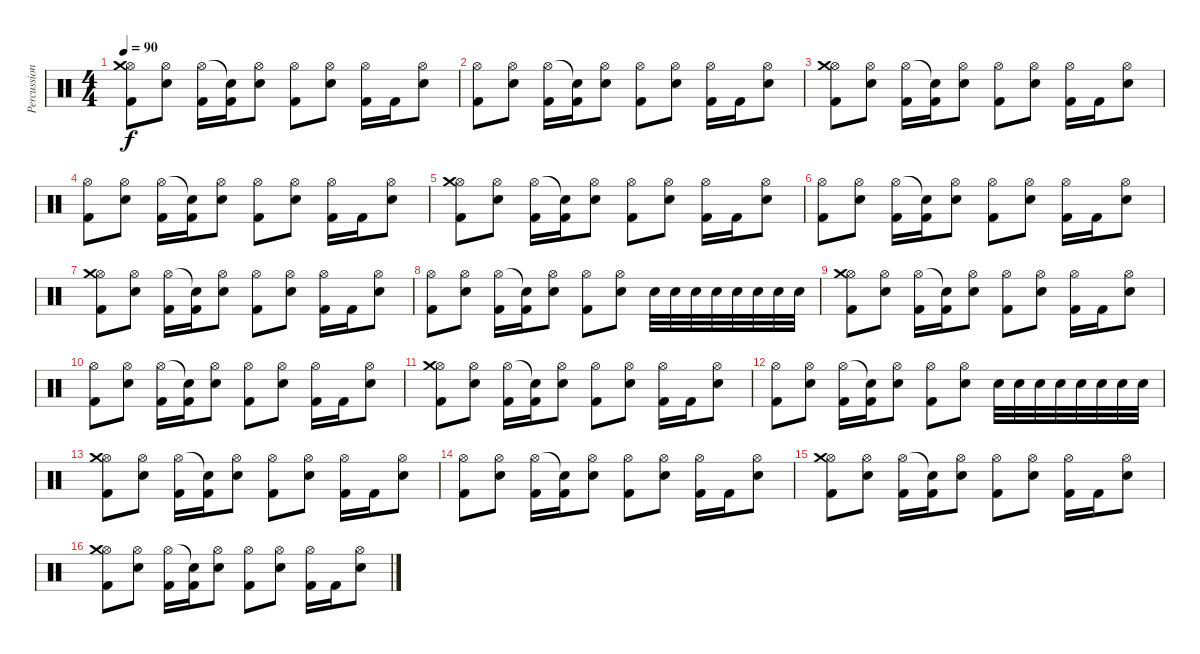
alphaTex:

\track ("Percussion" "Percussion") {instrument percussion}
\staff {score}
\articulation defaults
\ts (4 4)
\tempo 90
\clef neutral
\ks c
("Hi-Hat (open)" "Crash medium (hit)" "Kick (hit) 2").8{dy f} ("Hi-Hat (open)" "Snare (hit) 2").8 ("Hi-Hat (open)" "Kick (hit) 2").16 ("Snare (hit)"{t} "Kick (hit) 2").16 ("Hi-Hat (open)" "Snare (hit) 2").8 ("Hi-Hat (open)" "Kick (hit) 2").8 ("Hi-Hat (open)" "Snare (hit) 2").8 ("Hi-Hat (open)" "Kick (hit) 2").16 "Kick (hit) 2".16 ("Hi-Hat (open)" "Snare (hit) 2").8 |
("Hi-Hat (open)" "Kick (hit) 2").8 ("Hi-Hat (open)" "Snare (hit) 2").8 ("Hi-Hat (open)" "Kick (hit) 2").16 ("Snare (hit)"{t} "Kick (hit) 2").16 ("Hi-Hat (open)" "Snare (hit) 2").8 ("Hi-Hat (open)" "Kick (hit) 2").8 ("Hi-Hat (open)" "Snare (hit) 2").8 ("Hi-Hat (open)" "Kick (hit) 2").16 "Kick (hit) 2".16 ("Hi-Hat (open)" "Snare (hit) 2").8 |
("Hi-Hat (open)" "Crash medium (hit)" "Kick (hit) 2").8 ("Hi-Hat (open)" "Snare (hit) 2").8 ("Hi-Hat (open)" "Kick (hit) 2").16 ("Snare (hit)"{t} "Kick (hit) 2").16 ("Hi-Hat (open)" "Snare (hit) 2").8 ("Hi-Hat (open)" "Kick (hit) 2").8 ("Hi-Hat (open)" "Snare (hit) 2").8 ("Hi-Hat (open)" "Kick (hit) 2").16 "Kick (hit) 2".16 ("Hi-Hat (open)" "Snare (hit) 2").8 |
("Hi-Hat (open)" "Kick (hit) 2").8 ("Hi-Hat (open)" "Snare (hit) 2").8 ("Hi-Hat (open)" "Kick (hit) 2").16 ("Snare (hit)"{t} "Kick (hit) 2").16 ("Hi-Hat (open)" "Snare (hit) 2").8 ("Hi-Hat (open)" "Kick (hit) 2").8 ("Hi-Hat (open)" "Snare (hit) 2").8 ("Hi-Hat (open)" "Kick (hit) 2").16 "Kick (hit) 2".16 ("Hi-Hat (open)" "Snare (hit) 2").8 |
("Hi-Hat (open)" "Crash medium (hit)" "Kick (hit) 2").8 ("Hi-Hat (open)" "Snare (hit) 2").8 ("Hi-Hat (open)" "Kick (hit) 2").16 ("Snare (hit)"{t} "Kick (hit) 2").16 ("Hi-Hat (open)" "Snare (hit) 2").8 ("Hi-Hat (open)" "Kick (hit) 2").8 ("Hi-Hat (open)" "Snare (hit) 2").8 ("Hi-Hat (open)" "Kick (hit) 2").16 "Kick (hit) 2".16 ("Hi-Hat (open)" "Snare (hit) 2").8 |
("Hi-Hat (open)" "Kick (hit) 2").8 ("Hi-Hat (open)" "Snare (hit) 2").8 ("Hi-Hat (open)" "Kick (hit) 2").16 ("Snare (hit)"{t} "Kick (hit) 2").16 ("Hi-Hat (open)" "Snare (hit) 2").8 ("Hi-Hat (open)" "Kick (hit) 2").8 ("Hi-Hat (open)" "Snare (hit) 2").8 ("Hi-Hat (open)" "Kick (hit) 2").16 "Kick (hit) 2".16 ("Hi-Hat (open)" "Snare (hit) 2").8 |
("Hi-Hat (open)" "Crash medium (hit)" "Kick (hit) 2").8 ("Hi-Hat (open)" "Snare (hit) 2").8 ("Hi-Hat (open)" "Kick (hit) 2").16 ("Snare (hit)"{t} "Kick (hit) 2").16 ("Hi-Hat (open)" "Snare (hit) 2").8 ("Hi-Hat (open)" "Kick (hit) 2").8 ("Hi-Hat (open)" "Snare (hit) 2").8 ("Hi-Hat (open)" "Kick (hit) 2").16 "Kick (hit) 2".16 ("Hi-Hat (open)" "Snare (hit) 2").8 |
("Hi-Hat (open)" "Kick (hit) 2").8 ("Hi-Hat (open)" "Snare (hit) 2").8 ("Hi-Hat (open)" "Kick (hit) 2").16 ("Snare (hit)"{t} "Kick (hit) 2").16 ("Hi-Hat (open)" "Snare (hit) 2").8 ("Hi-Hat (open)" "Kick (hit) 2").8 ("Hi-Hat (open)" "Snare (hit) 2").8 "Snare (hit) 2".32 "Snare (hit) 2".32 "Snare (hit) 2".32 "Snare (hit) 2".32 "Snare (hit) 2".32 "Snare (hit) 2".32 "Snare (hit) 2".32 "Snare (hit) 2".32 |
("Hi-Hat (open)" "Crash medium (hit)" "Kick (hit) 2").8 ("Hi-Hat (open)" "Snare (hit) 2").8 ("Hi-Hat (open)" "Kick (hit) 2").16 ("Snare (hit)"{t} "Kick (hit) 2").16 ("Hi-Hat (open)" "Snare (hit) 2").8 ("Hi-Hat (open)" "Kick (hit) 2").8 ("Hi-Hat (open)" "Snare (hit) 2").8 ("Hi-Hat (open)" "Kick (hit) 2").16 "Kick (hit) 2".16 ("Hi-Hat (open)" "Snare (hit) 2").8 |
("Hi-Hat (open)" "Kick (hit) 2").8 ("Hi-Hat (open)" "Snare (hit) 2").8 ("Hi-Hat (open)" "Kick (hit) 2").16 ("Snare (hit)"{t} "Kick (hit) 2").16 ("Hi-Hat (open)" "Snare (hit) 2").8 ("Hi-Hat (open)" "Kick (hit) 2").8 ("Hi-Hat (open)" "Snare (hit) 2").8 ("Hi-Hat (open)" "Kick (hit) 2").16 "Kick (hit) 2".16 ("Hi-Hat (open)" "Snare (hit) 2").8 |
("Hi-Hat (open)" "Crash medium (hit)" "Kick (hit) 2").8 ("Hi-Hat (open)" "Snare (hit) 2").8 ("Hi-Hat (open)" "Kick (hit) 2").16 ("Snare (hit)"{t} "Kick (hit) 2").16 ("Hi-Hat (open)" "Snare (hit) 2").8 ("Hi-Hat (open)" "Kick (hit) 2").8 ("Hi-Hat (open)" "Snare (hit) 2").8 ("Hi-Hat (open)" "Kick (hit) 2").16 "Kick (hit) 2".16 ("Hi-Hat (open)" "Snare (hit) 2").8 |
("Hi-Hat (open)" "Kick (hit) 2").8 ("Hi-Hat (open)" "Snare (hit) 2").8 ("Hi-Hat (open)" "Kick (hit) 2").16 ("Snare (hit)"{t} "Kick (hit) 2").16 ("Hi-Hat (open)" "Snare (hit) 2").8 ("Hi-Hat (open)" "Kick (hit) 2").8 ("Hi-Hat (open)" "Snare (hit) 2").8 "Snare (hit) 2".32 "Snare (hit) 2".32 "Snare (hit) 2".32 "Snare (hit) 2".32 "Snare (hit) 2".32 "Snare (hit) 2".32 "Snare (hit) 2".32 "Snare (hit) 2".32 |
("Hi-Hat (open)" "Crash medium (hit)" "Kick (hit) 2").8 ("Hi-Hat (open)" "Snare (hit) 2").8 ("Hi-Hat (open)" "Kick (hit) 2").16 ("Snare (hit)"{t} "Kick (hit) 2").16 ("Hi-Hat (open)" "Snare (hit) 2").8 ("Hi-Hat (open)" "Kick (hit) 2").8 ("Hi-Hat (open)" "Snare (hit) 2").8 ("Hi-Hat (open)" "Kick (hit) 2").16 "Kick (hit) 2".16 ("Hi-Hat (open)" "Snare (hit) 2").8 |
("Hi-Hat (open)" "Kick (hit) 2").8 ("Hi-Hat (open)" "Snare (hit) 2").8 ("Hi-Hat (open)" "Kick (hit) 2").16 ("Snare (hit)"{t} "Kick (hit) 2").16 ("Hi-Hat (open)" "Snare (hit) 2").8 ("Hi-Hat (open)" "Kick (hit) 2").8 ("Hi-Hat (open)" "Snare (hit) 2").8 ("Hi-Hat (open)" "Kick (hit) 2").16 "Kick (hit) 2".16 ("Hi-Hat (open)" "Snare (hit) 2").8 |
("Hi-Hat (open)" "Crash medium (hit)" "Kick (hit) 2").8 ("Hi-Hat (open)" "Snare (hit) 2").8 ("Hi-Hat (open)" "Kick (hit) 2").16 ("Snare (hit)"{t} "Kick (hit) 2").16 ("Hi-Hat (open)" "Snare (hit) 2").8 ("Hi-Hat (open)" "Kick (hit) 2").8 ("Hi-Hat (open)" "Snare (hit) 2").8 ("Hi-Hat (open)" "Kick (hit) 2").16 "Kick (hit) 2".16 ("Hi-Hat (open)" "Snare (hit) 2").8 |
("Hi-Hat (open)" "Crash medium (hit)" "Kick (hit) 2").8 ("Hi-Hat (open)" "Snare (hit) 2").8 ("Hi-Hat (open)" "Kick (hit) 2").16 ("Snare (hit)"{t} "Kick (hit) 2").16 ("Hi-Hat (open)" "Snare (hit) 2").8 ("Hi-Hat (open)" "Kick (hit) 2").8 ("Hi-Hat (open)" "Snare (hit) 2").8 ("Hi-Hat (open)" "Kick (hit) 2").16 "Kick (hit) 2".16 ("Hi-Hat (open)" "Snare (hit) 2").8
